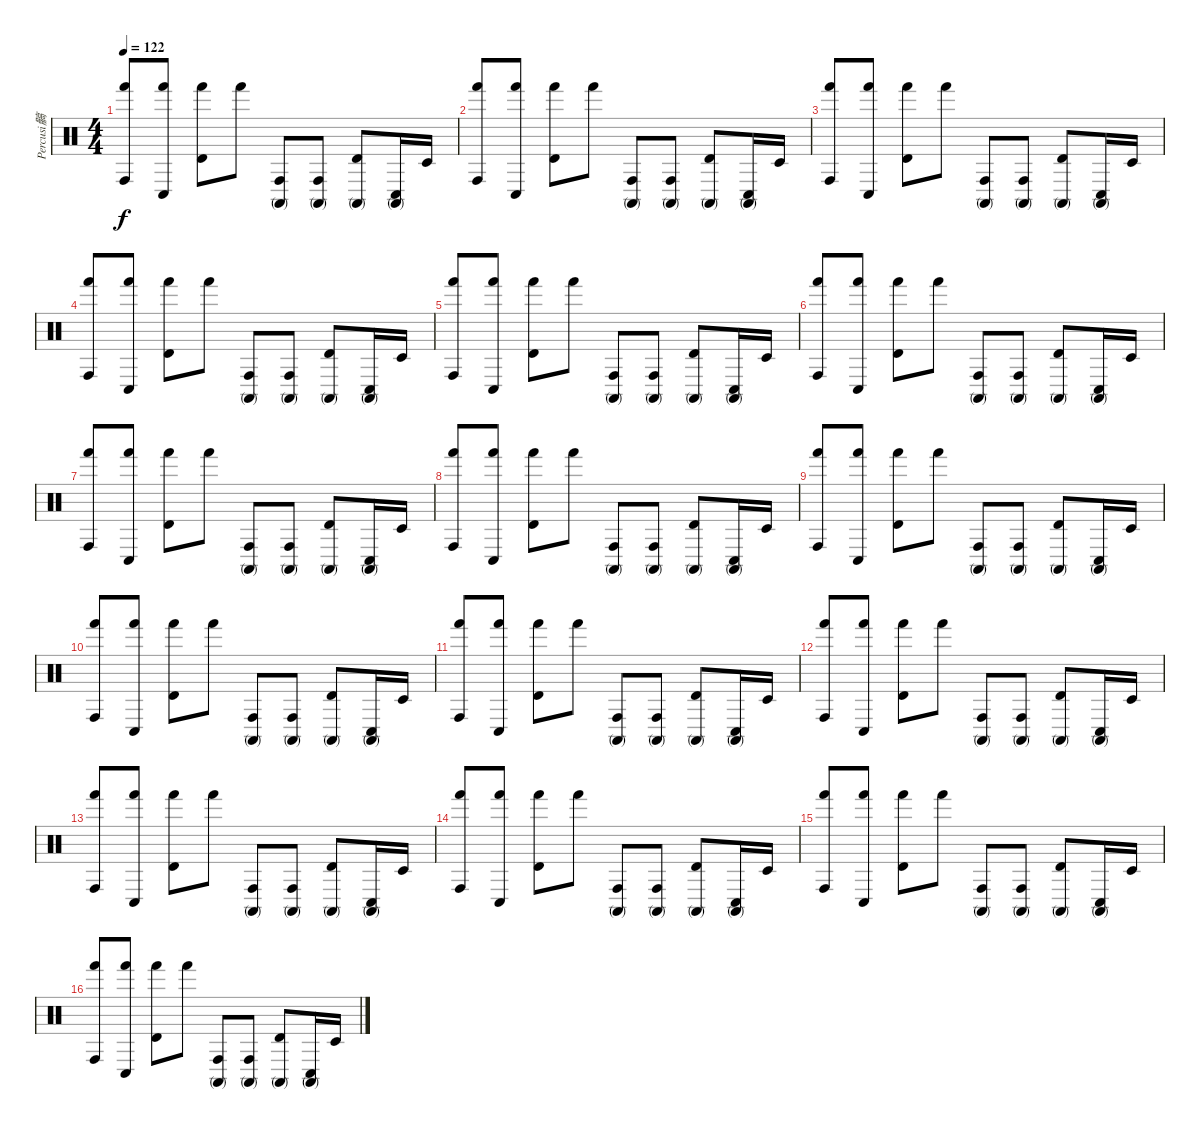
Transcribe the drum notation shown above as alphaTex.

\track ("Percusi髇" "Percusi髇") {instrument percussion}
\staff {score}
\articulation defaults
\ts (4 4)
\tempo 122
\clef neutral
\ks c
("Hand (hit)" "Conga high (hit)").8{dy f} ("Hand (hit)" "Conga low (hit)").8 ("Hand (hit)" "Timbale high (hit)").8 "Hand (hit)".8 ("Conga high (mute)" "Conga high (hit)").8 ("Conga high (mute)" "Conga high (hit)").8 ("Conga high (mute)" "Timbale high (hit)").8 ("Conga high (mute)" "Conga low (hit)").16 "Timbale low (hit)".16 |
("Hand (hit)" "Conga high (hit)").8 ("Hand (hit)" "Conga low (hit)").8 ("Hand (hit)" "Timbale high (hit)").8 "Hand (hit)".8 ("Conga high (mute)" "Conga high (hit)").8 ("Conga high (mute)" "Conga high (hit)").8 ("Conga high (mute)" "Timbale high (hit)").8 ("Conga high (mute)" "Conga low (hit)").16 "Timbale low (hit)".16 |
("Hand (hit)" "Conga high (hit)").8 ("Hand (hit)" "Conga low (hit)").8 ("Hand (hit)" "Timbale high (hit)").8 "Hand (hit)".8 ("Conga high (mute)" "Conga high (hit)").8 ("Conga high (mute)" "Conga high (hit)").8 ("Conga high (mute)" "Timbale high (hit)").8 ("Conga high (mute)" "Conga low (hit)").16 "Timbale low (hit)".16 |
("Hand (hit)" "Conga high (hit)").8 ("Hand (hit)" "Conga low (hit)").8 ("Hand (hit)" "Timbale high (hit)").8 "Hand (hit)".8 ("Conga high (mute)" "Conga high (hit)").8 ("Conga high (mute)" "Conga high (hit)").8 ("Conga high (mute)" "Timbale high (hit)").8 ("Conga high (mute)" "Conga low (hit)").16 "Timbale low (hit)".16 |
("Hand (hit)" "Conga high (hit)").8 ("Hand (hit)" "Conga low (hit)").8 ("Hand (hit)" "Timbale high (hit)").8 "Hand (hit)".8 ("Conga high (mute)" "Conga high (hit)").8 ("Conga high (mute)" "Conga high (hit)").8 ("Conga high (mute)" "Timbale high (hit)").8 ("Conga high (mute)" "Conga low (hit)").16 "Timbale low (hit)".16 |
("Hand (hit)" "Conga high (hit)").8 ("Hand (hit)" "Conga low (hit)").8 ("Hand (hit)" "Timbale high (hit)").8 "Hand (hit)".8 ("Conga high (mute)" "Conga high (hit)").8 ("Conga high (mute)" "Conga high (hit)").8 ("Conga high (mute)" "Timbale high (hit)").8 ("Conga high (mute)" "Conga low (hit)").16 "Timbale low (hit)".16 |
("Hand (hit)" "Conga high (hit)").8 ("Hand (hit)" "Conga low (hit)").8 ("Hand (hit)" "Timbale high (hit)").8 "Hand (hit)".8 ("Conga high (mute)" "Conga high (hit)").8 ("Conga high (mute)" "Conga high (hit)").8 ("Conga high (mute)" "Timbale high (hit)").8 ("Conga high (mute)" "Conga low (hit)").16 "Timbale low (hit)".16 |
("Hand (hit)" "Conga high (hit)").8 ("Hand (hit)" "Conga low (hit)").8 ("Hand (hit)" "Timbale high (hit)").8 "Hand (hit)".8 ("Conga high (mute)" "Conga high (hit)").8 ("Conga high (mute)" "Conga high (hit)").8 ("Conga high (mute)" "Timbale high (hit)").8 ("Conga high (mute)" "Conga low (hit)").16 "Timbale low (hit)".16 |
("Hand (hit)" "Conga high (hit)").8 ("Hand (hit)" "Conga low (hit)").8 ("Hand (hit)" "Timbale high (hit)").8 "Hand (hit)".8 ("Conga high (mute)" "Conga high (hit)").8 ("Conga high (mute)" "Conga high (hit)").8 ("Conga high (mute)" "Timbale high (hit)").8 ("Conga high (mute)" "Conga low (hit)").16 "Timbale low (hit)".16 |
("Hand (hit)" "Conga high (hit)").8 ("Hand (hit)" "Conga low (hit)").8 ("Hand (hit)" "Timbale high (hit)").8 "Hand (hit)".8 ("Conga high (mute)" "Conga high (hit)").8 ("Conga high (mute)" "Conga high (hit)").8 ("Conga high (mute)" "Timbale high (hit)").8 ("Conga high (mute)" "Conga low (hit)").16 "Timbale low (hit)".16 |
("Hand (hit)" "Conga high (hit)").8 ("Hand (hit)" "Conga low (hit)").8 ("Hand (hit)" "Timbale high (hit)").8 "Hand (hit)".8 ("Conga high (mute)" "Conga high (hit)").8 ("Conga high (mute)" "Conga high (hit)").8 ("Conga high (mute)" "Timbale high (hit)").8 ("Conga high (mute)" "Conga low (hit)").16 "Timbale low (hit)".16 |
("Hand (hit)" "Conga high (hit)").8 ("Hand (hit)" "Conga low (hit)").8 ("Hand (hit)" "Timbale high (hit)").8 "Hand (hit)".8 ("Conga high (mute)" "Conga high (hit)").8 ("Conga high (mute)" "Conga high (hit)").8 ("Conga high (mute)" "Timbale high (hit)").8 ("Conga high (mute)" "Conga low (hit)").16 "Timbale low (hit)".16 |
("Hand (hit)" "Conga high (hit)").8 ("Hand (hit)" "Conga low (hit)").8 ("Hand (hit)" "Timbale high (hit)").8 "Hand (hit)".8 ("Conga high (mute)" "Conga high (hit)").8 ("Conga high (mute)" "Conga high (hit)").8 ("Conga high (mute)" "Timbale high (hit)").8 ("Conga high (mute)" "Conga low (hit)").16 "Timbale low (hit)".16 |
("Hand (hit)" "Conga high (hit)").8 ("Hand (hit)" "Conga low (hit)").8 ("Hand (hit)" "Timbale high (hit)").8 "Hand (hit)".8 ("Conga high (mute)" "Conga high (hit)").8 ("Conga high (mute)" "Conga high (hit)").8 ("Conga high (mute)" "Timbale high (hit)").8 ("Conga high (mute)" "Conga low (hit)").16 "Timbale low (hit)".16 |
("Hand (hit)" "Conga high (hit)").8 ("Hand (hit)" "Conga low (hit)").8 ("Hand (hit)" "Timbale high (hit)").8 "Hand (hit)".8 ("Conga high (mute)" "Conga high (hit)").8 ("Conga high (mute)" "Conga high (hit)").8 ("Conga high (mute)" "Timbale high (hit)").8 ("Conga high (mute)" "Conga low (hit)").16 "Timbale low (hit)".16 |
("Hand (hit)" "Conga high (hit)").8 ("Hand (hit)" "Conga low (hit)").8 ("Hand (hit)" "Timbale high (hit)").8 "Hand (hit)".8 ("Conga high (mute)" "Conga high (hit)").8 ("Conga high (mute)" "Conga high (hit)").8 ("Conga high (mute)" "Timbale high (hit)").8 ("Conga high (mute)" "Conga low (hit)").16 "Timbale low (hit)".16
